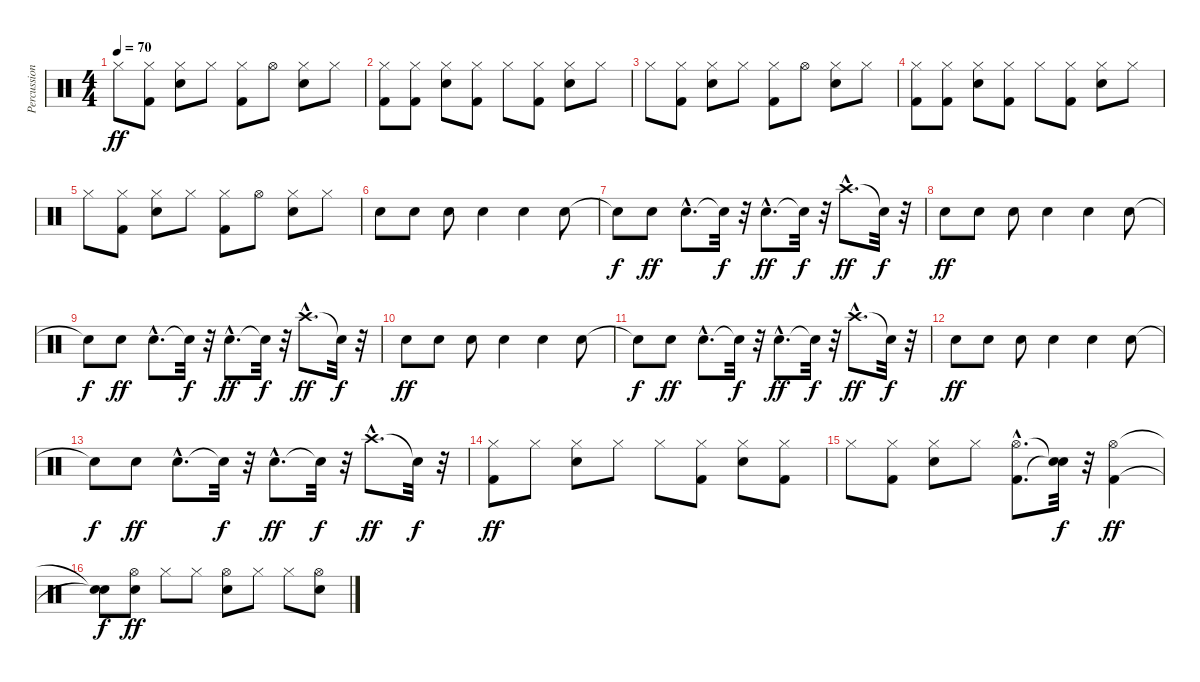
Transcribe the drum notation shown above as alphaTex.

\track ("Percussions" "Percussion") {instrument percussion}
\staff {score}
\articulation defaults
\ts (4 4)
\tempo 70
\clef neutral
\ks c "Hi-Hat (closed)".8{dy ff}
("Kick (hit) 2" "Hi-Hat (closed)").8 ("Snare (hit) 2" "Hi-Hat (closed)").8 "Hi-Hat (closed)".8 ("Kick (hit) 2" "Hi-Hat (closed)").8 "Hi-Hat (open)".8 ("Snare (hit) 2" "Hi-Hat (closed)").8 "Hi-Hat (closed)".8 |
("Kick (hit) 2" "Hi-Hat (closed)").8 ("Kick (hit) 2" "Hi-Hat (closed)").8 ("Snare (hit) 2" "Hi-Hat (closed)").8 ("Kick (hit) 2" "Hi-Hat (closed)").8 "Hi-Hat (closed)".8 ("Kick (hit) 2" "Hi-Hat (closed)").8 ("Snare (hit) 2" "Hi-Hat (closed)").8 "Hi-Hat (closed)".8 |
"Hi-Hat (closed)".8 ("Kick (hit) 2" "Hi-Hat (closed)").8 ("Snare (hit) 2" "Hi-Hat (closed)").8 "Hi-Hat (closed)".8 ("Kick (hit) 2" "Hi-Hat (closed)").8 "Hi-Hat (open)".8 ("Snare (hit) 2" "Hi-Hat (closed)").8 "Hi-Hat (closed)".8 |
("Kick (hit) 2" "Hi-Hat (closed)").8 ("Kick (hit) 2" "Hi-Hat (closed)").8 ("Snare (hit) 2" "Hi-Hat (closed)").8 ("Kick (hit) 2" "Hi-Hat (closed)").8 "Hi-Hat (closed)".8 ("Kick (hit) 2" "Hi-Hat (closed)").8 ("Snare (hit) 2" "Hi-Hat (closed)").8 "Hi-Hat (closed)".8 |
"Hi-Hat (closed)".8 ("Kick (hit) 2" "Hi-Hat (closed)").8 ("Snare (hit) 2" "Hi-Hat (closed)").8 "Hi-Hat (closed)".8 ("Kick (hit) 2" "Hi-Hat (closed)").8 "Hi-Hat (open)".8 ("Snare (hit) 2" "Hi-Hat (closed)").8 "Hi-Hat (closed)".8 |
"Snare (hit) 2".8 "Snare (hit) 2".8 "Snare (hit) 2".8 "Snare (hit) 2".4 "Snare (hit) 2".4 "Snare (hit) 2".8 |
"Snare (hit)"{t}.8{dy f} "Snare (hit) 2".8{dy ff} "Snare (hit) 2"{hac}.8{d} "Snare (hit)"{t}.32{dy f} r.32 "Snare (hit) 2"{hac}.8{d dy ff} "Snare (hit)"{t}.32{dy f} r.32 "Crash high (hit)"{hac}.8{d dy ff} "Snare (hit)"{t}.32{dy f} r.32 |
"Snare (hit) 2".8{dy ff} "Snare (hit) 2".8 "Snare (hit) 2".8 "Snare (hit) 2".4 "Snare (hit) 2".4 "Snare (hit) 2".8 |
"Snare (hit)"{t}.8{dy f} "Snare (hit) 2".8{dy ff} "Snare (hit) 2"{hac}.8{d} "Snare (hit)"{t}.32{dy f} r.32 "Snare (hit) 2"{hac}.8{d dy ff} "Snare (hit)"{t}.32{dy f} r.32 "Crash high (hit)"{hac}.8{d dy ff} "Snare (hit)"{t}.32{dy f} r.32 |
"Snare (hit) 2".8{dy ff} "Snare (hit) 2".8 "Snare (hit) 2".8 "Snare (hit) 2".4 "Snare (hit) 2".4 "Snare (hit) 2".8 |
"Snare (hit)"{t}.8{dy f} "Snare (hit) 2".8{dy ff} "Snare (hit) 2"{hac}.8{d} "Snare (hit)"{t}.32{dy f} r.32 "Snare (hit) 2"{hac}.8{d dy ff} "Snare (hit)"{t}.32{dy f} r.32 "Crash high (hit)"{hac}.8{d dy ff} "Snare (hit)"{t}.32{dy f} r.32 |
"Snare (hit) 2".8{dy ff} "Snare (hit) 2".8 "Snare (hit) 2".8 "Snare (hit) 2".4 "Snare (hit) 2".4 "Snare (hit) 2".8 |
"Snare (hit)"{t}.8{dy f} "Snare (hit) 2".8{dy ff} "Snare (hit) 2"{hac}.8{d} "Snare (hit)"{t}.32{dy f} r.32 "Snare (hit) 2"{hac}.8{d dy ff} "Snare (hit)"{t}.32{dy f} r.32 "Crash high (hit)"{hac}.8{d dy ff} "Snare (hit)"{t}.32{dy f} r.32 |
("Kick (hit) 2" "Hi-Hat (closed)").8{dy ff} "Hi-Hat (closed)".8 ("Snare (hit) 2" "Hi-Hat (closed)").8 "Hi-Hat (closed)".8 "Hi-Hat (closed)".8 ("Kick (hit) 2" "Hi-Hat (closed)").8 ("Snare (hit) 2" "Hi-Hat (closed)").8 ("Kick (hit) 2" "Hi-Hat (closed)").8 |
"Hi-Hat (closed)".8 ("Kick (hit) 2" "Hi-Hat (closed)").8 ("Snare (hit) 2" "Hi-Hat (closed)").8 "Hi-Hat (closed)".8 ("Kick (hit) 2"{hac} "Hi-Hat (open)"{hac}).8{d} ("Snare (hit)"{t} "Snare (hit)"{t}).32{dy f} r.32 ("Kick (hit) 2" "Hi-Hat (open)").4{dy ff} |
("Snare (hit)"{t} "Snare (hit)"{t}).8{dy f} ("Snare (hit) 2" "Hi-Hat (open)").8{dy ff} "Hi-Hat (closed)".8 "Hi-Hat (closed)".8 ("Snare (hit) 2" "Hi-Hat (open)").8 "Hi-Hat (closed)".8 "Hi-Hat (closed)".8 ("Snare (hit) 2" "Hi-Hat (open)").8
